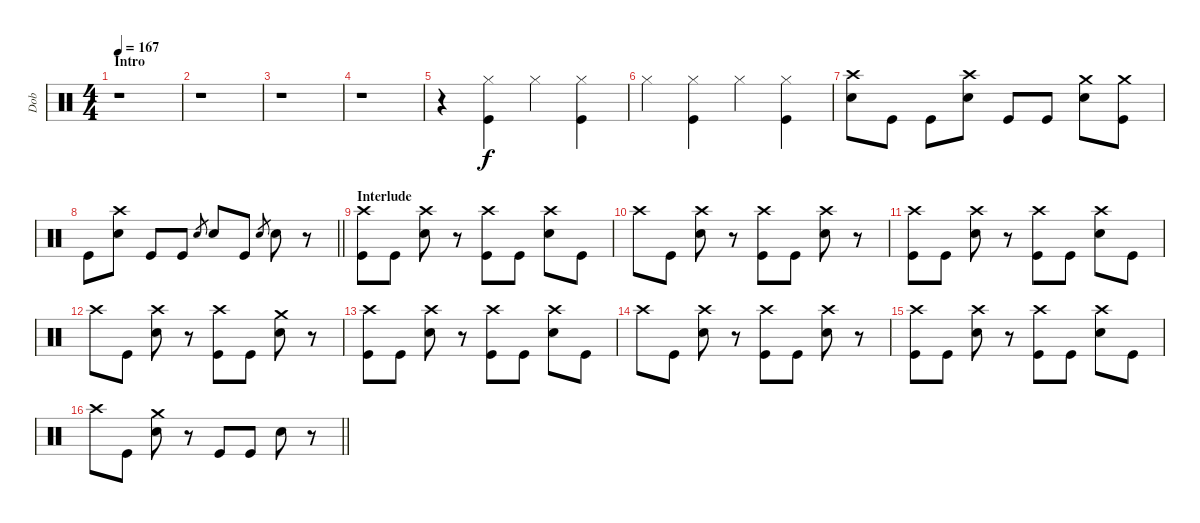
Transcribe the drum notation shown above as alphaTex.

\track ("Dob" "Dob") {instrument percussion}
\staff {score}
\articulation defaults
\ts (4 4)
\section ("" "Intro")
\tempo 167
\clef neutral
\ks c
r.1{dy f} |
r.1 |
r.1 |
r.1 |
r.4 ("Hi-Hat (closed)" "Kick (hit)").4 "Hi-Hat (closed)".4 ("Hi-Hat (closed)" "Kick (hit)").4 |
"Hi-Hat (closed)".4 ("Hi-Hat (closed)" "Kick (hit)").4 "Hi-Hat (closed)".4 ("Hi-Hat (closed)" "Kick (hit)").4 |
("Crash high (hit)" "Snare (hit) 2").8 "Kick (hit)".8 "Kick (hit)".8 ("Crash high (hit)" "Snare (hit) 2").8 "Kick (hit)".8 "Kick (hit)".8 ("Crash medium (hit)" "Snare (hit) 2").8 ("Crash medium (hit)" "Kick (hit)").8 |
\barLineRight lightlight "Kick (hit)".8
("Crash high (hit)" "Snare (hit) 2").8 "Kick (hit)".8 "Kick (hit)".8 "Snare (hit) 2".8{gr} "Snare (hit) 2".8 "Kick (hit)".8 "Snare (hit) 2".8{gr} "Snare (hit) 2".8 r.8 |
\section ("" "Interlude")
("Crash high (hit)" "Kick (hit)").8 "Kick (hit)".8 ("Crash high (hit)" "Snare (hit) 2").8 r.8 ("Crash high (hit)" "Kick (hit)").8 "Kick (hit)".8 ("Crash high (hit)" "Snare (hit) 2").8 "Kick (hit)".8 |
"Crash high (hit)".8 "Kick (hit)".8 ("Crash high (hit)" "Snare (hit) 2").8 r.8 ("Crash high (hit)" "Kick (hit)").8 "Kick (hit)".8 ("Crash high (hit)" "Snare (hit) 2").8 r.8 |
("Crash high (hit)" "Kick (hit)").8 "Kick (hit)".8 ("Crash high (hit)" "Snare (hit) 2").8 r.8 ("Crash high (hit)" "Kick (hit)").8 "Kick (hit)".8 ("Crash high (hit)" "Snare (hit) 2").8 "Kick (hit)".8 |
"Crash high (hit)".8 "Kick (hit)".8 ("Crash high (hit)" "Snare (hit) 2").8 r.8 ("Crash high (hit)" "Kick (hit)").8 "Kick (hit)".8 ("Crash medium (hit)" "Snare (hit) 2").8 r.8 |
("Crash high (hit)" "Kick (hit)").8 "Kick (hit)".8 ("Crash high (hit)" "Snare (hit) 2").8 r.8 ("Crash high (hit)" "Kick (hit)").8 "Kick (hit)".8 ("Crash high (hit)" "Snare (hit) 2").8 "Kick (hit)".8 |
"Crash high (hit)".8 "Kick (hit)".8 ("Crash high (hit)" "Snare (hit) 2").8 r.8 ("Crash high (hit)" "Kick (hit)").8 "Kick (hit)".8 ("Crash high (hit)" "Snare (hit) 2").8 r.8 |
("Crash high (hit)" "Kick (hit)").8 "Kick (hit)".8 ("Crash high (hit)" "Snare (hit) 2").8 r.8 ("Crash high (hit)" "Kick (hit)").8 "Kick (hit)".8 ("Crash high (hit)" "Snare (hit) 2").8 "Kick (hit)".8 |
\barLineRight lightlight "Crash high (hit)".8 "Kick (hit)".8
("Crash medium (hit)" "Snare (hit) 2").8 r.8 "Kick (hit)".8 "Kick (hit)".8 "Snare (hit) 2".8 r.8
